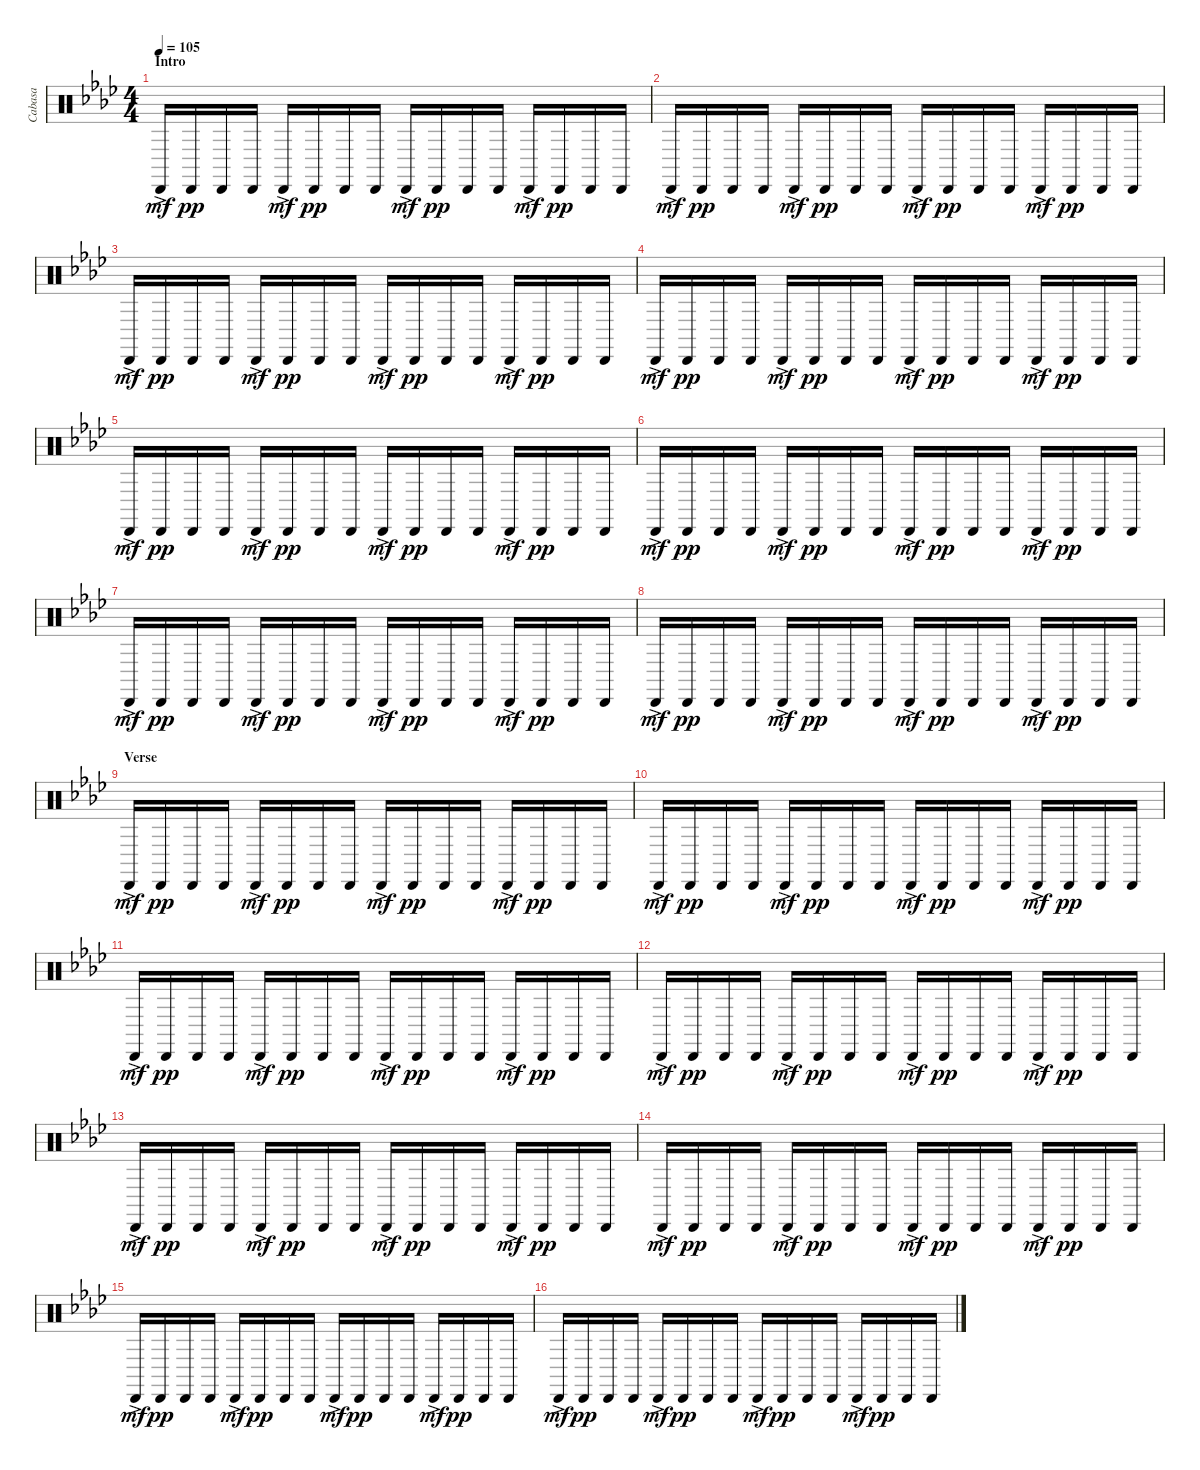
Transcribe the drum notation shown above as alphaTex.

\track ("Cabasa" "Cabasa") {instrument percussion}
\staff {score}
\articulation defaults
\ts (4 4)
\section ("" "Intro")
\tempo 105
\clef neutral
\ks ab "Cabasa (hit)"{ac}.16{dy mf} "Cabasa (hit)".16{dy pp} "Cabasa (hit)".16 "Cabasa (hit)".16 "Cabasa (hit)"{ac}.16{dy mf} "Cabasa (hit)".16{dy pp} "Cabasa (hit)".16 "Cabasa (hit)".16 "Cabasa (hit)"{ac}.16{dy mf} "Cabasa (hit)".16{dy pp} "Cabasa (hit)".16 "Cabasa (hit)".16 "Cabasa (hit)"{ac}.16{dy mf} "Cabasa (hit)".16{dy pp} "Cabasa (hit)".16 "Cabasa (hit)".16
|
"Cabasa (hit)"{ac}.16{dy mf} "Cabasa (hit)".16{dy pp} "Cabasa (hit)".16 "Cabasa (hit)".16 "Cabasa (hit)"{ac}.16{dy mf} "Cabasa (hit)".16{dy pp} "Cabasa (hit)".16 "Cabasa (hit)".16 "Cabasa (hit)"{ac}.16{dy mf} "Cabasa (hit)".16{dy pp} "Cabasa (hit)".16 "Cabasa (hit)".16 "Cabasa (hit)"{ac}.16{dy mf} "Cabasa (hit)".16{dy pp} "Cabasa (hit)".16 "Cabasa (hit)".16 |
"Cabasa (hit)"{ac}.16{dy mf} "Cabasa (hit)".16{dy pp} "Cabasa (hit)".16 "Cabasa (hit)".16 "Cabasa (hit)"{ac}.16{dy mf} "Cabasa (hit)".16{dy pp} "Cabasa (hit)".16 "Cabasa (hit)".16 "Cabasa (hit)"{ac}.16{dy mf} "Cabasa (hit)".16{dy pp} "Cabasa (hit)".16 "Cabasa (hit)".16 "Cabasa (hit)"{ac}.16{dy mf} "Cabasa (hit)".16{dy pp} "Cabasa (hit)".16 "Cabasa (hit)".16 |
"Cabasa (hit)"{ac}.16{dy mf} "Cabasa (hit)".16{dy pp} "Cabasa (hit)".16 "Cabasa (hit)".16 "Cabasa (hit)"{ac}.16{dy mf} "Cabasa (hit)".16{dy pp} "Cabasa (hit)".16 "Cabasa (hit)".16 "Cabasa (hit)"{ac}.16{dy mf} "Cabasa (hit)".16{dy pp} "Cabasa (hit)".16 "Cabasa (hit)".16 "Cabasa (hit)"{ac}.16{dy mf} "Cabasa (hit)".16{dy pp} "Cabasa (hit)".16 "Cabasa (hit)".16 |
"Cabasa (hit)"{ac}.16{dy mf} "Cabasa (hit)".16{dy pp} "Cabasa (hit)".16 "Cabasa (hit)".16 "Cabasa (hit)"{ac}.16{dy mf} "Cabasa (hit)".16{dy pp} "Cabasa (hit)".16 "Cabasa (hit)".16 "Cabasa (hit)"{ac}.16{dy mf} "Cabasa (hit)".16{dy pp} "Cabasa (hit)".16 "Cabasa (hit)".16 "Cabasa (hit)"{ac}.16{dy mf} "Cabasa (hit)".16{dy pp} "Cabasa (hit)".16 "Cabasa (hit)".16 |
"Cabasa (hit)"{ac}.16{dy mf} "Cabasa (hit)".16{dy pp} "Cabasa (hit)".16 "Cabasa (hit)".16 "Cabasa (hit)"{ac}.16{dy mf} "Cabasa (hit)".16{dy pp} "Cabasa (hit)".16 "Cabasa (hit)".16 "Cabasa (hit)"{ac}.16{dy mf} "Cabasa (hit)".16{dy pp} "Cabasa (hit)".16 "Cabasa (hit)".16 "Cabasa (hit)"{ac}.16{dy mf} "Cabasa (hit)".16{dy pp} "Cabasa (hit)".16 "Cabasa (hit)".16 |
"Cabasa (hit)"{ac}.16{dy mf} "Cabasa (hit)".16{dy pp} "Cabasa (hit)".16 "Cabasa (hit)".16 "Cabasa (hit)"{ac}.16{dy mf} "Cabasa (hit)".16{dy pp} "Cabasa (hit)".16 "Cabasa (hit)".16 "Cabasa (hit)"{ac}.16{dy mf} "Cabasa (hit)".16{dy pp} "Cabasa (hit)".16 "Cabasa (hit)".16 "Cabasa (hit)"{ac}.16{dy mf} "Cabasa (hit)".16{dy pp} "Cabasa (hit)".16 "Cabasa (hit)".16 |
"Cabasa (hit)"{ac}.16{dy mf} "Cabasa (hit)".16{dy pp} "Cabasa (hit)".16 "Cabasa (hit)".16 "Cabasa (hit)"{ac}.16{dy mf} "Cabasa (hit)".16{dy pp} "Cabasa (hit)".16 "Cabasa (hit)".16 "Cabasa (hit)"{ac}.16{dy mf} "Cabasa (hit)".16{dy pp} "Cabasa (hit)".16 "Cabasa (hit)".16 "Cabasa (hit)"{ac}.16{dy mf} "Cabasa (hit)".16{dy pp} "Cabasa (hit)".16 "Cabasa (hit)".16 |
\section ("" "Verse")
"Cabasa (hit)"{ac}.16{dy mf} "Cabasa (hit)".16{dy pp} "Cabasa (hit)".16 "Cabasa (hit)".16 "Cabasa (hit)"{ac}.16{dy mf} "Cabasa (hit)".16{dy pp} "Cabasa (hit)".16 "Cabasa (hit)".16 "Cabasa (hit)"{ac}.16{dy mf} "Cabasa (hit)".16{dy pp} "Cabasa (hit)".16 "Cabasa (hit)".16 "Cabasa (hit)"{ac}.16{dy mf} "Cabasa (hit)".16{dy pp} "Cabasa (hit)".16 "Cabasa (hit)".16 |
"Cabasa (hit)"{ac}.16{dy mf} "Cabasa (hit)".16{dy pp} "Cabasa (hit)".16 "Cabasa (hit)".16 "Cabasa (hit)"{ac}.16{dy mf} "Cabasa (hit)".16{dy pp} "Cabasa (hit)".16 "Cabasa (hit)".16 "Cabasa (hit)"{ac}.16{dy mf} "Cabasa (hit)".16{dy pp} "Cabasa (hit)".16 "Cabasa (hit)".16 "Cabasa (hit)"{ac}.16{dy mf} "Cabasa (hit)".16{dy pp} "Cabasa (hit)".16 "Cabasa (hit)".16 |
"Cabasa (hit)"{ac}.16{dy mf} "Cabasa (hit)".16{dy pp} "Cabasa (hit)".16 "Cabasa (hit)".16 "Cabasa (hit)"{ac}.16{dy mf} "Cabasa (hit)".16{dy pp} "Cabasa (hit)".16 "Cabasa (hit)".16 "Cabasa (hit)"{ac}.16{dy mf} "Cabasa (hit)".16{dy pp} "Cabasa (hit)".16 "Cabasa (hit)".16 "Cabasa (hit)"{ac}.16{dy mf} "Cabasa (hit)".16{dy pp} "Cabasa (hit)".16 "Cabasa (hit)".16 |
"Cabasa (hit)"{ac}.16{dy mf} "Cabasa (hit)".16{dy pp} "Cabasa (hit)".16 "Cabasa (hit)".16 "Cabasa (hit)"{ac}.16{dy mf} "Cabasa (hit)".16{dy pp} "Cabasa (hit)".16 "Cabasa (hit)".16 "Cabasa (hit)"{ac}.16{dy mf} "Cabasa (hit)".16{dy pp} "Cabasa (hit)".16 "Cabasa (hit)".16 "Cabasa (hit)"{ac}.16{dy mf} "Cabasa (hit)".16{dy pp} "Cabasa (hit)".16 "Cabasa (hit)".16 |
"Cabasa (hit)"{ac}.16{dy mf} "Cabasa (hit)".16{dy pp} "Cabasa (hit)".16 "Cabasa (hit)".16 "Cabasa (hit)"{ac}.16{dy mf} "Cabasa (hit)".16{dy pp} "Cabasa (hit)".16 "Cabasa (hit)".16 "Cabasa (hit)"{ac}.16{dy mf} "Cabasa (hit)".16{dy pp} "Cabasa (hit)".16 "Cabasa (hit)".16 "Cabasa (hit)"{ac}.16{dy mf} "Cabasa (hit)".16{dy pp} "Cabasa (hit)".16 "Cabasa (hit)".16 |
"Cabasa (hit)"{ac}.16{dy mf} "Cabasa (hit)".16{dy pp} "Cabasa (hit)".16 "Cabasa (hit)".16 "Cabasa (hit)"{ac}.16{dy mf} "Cabasa (hit)".16{dy pp} "Cabasa (hit)".16 "Cabasa (hit)".16 "Cabasa (hit)"{ac}.16{dy mf} "Cabasa (hit)".16{dy pp} "Cabasa (hit)".16 "Cabasa (hit)".16 "Cabasa (hit)"{ac}.16{dy mf} "Cabasa (hit)".16{dy pp} "Cabasa (hit)".16 "Cabasa (hit)".16 |
"Cabasa (hit)"{ac}.16{dy mf} "Cabasa (hit)".16{dy pp} "Cabasa (hit)".16 "Cabasa (hit)".16 "Cabasa (hit)"{ac}.16{dy mf} "Cabasa (hit)".16{dy pp} "Cabasa (hit)".16 "Cabasa (hit)".16 "Cabasa (hit)"{ac}.16{dy mf} "Cabasa (hit)".16{dy pp} "Cabasa (hit)".16 "Cabasa (hit)".16 "Cabasa (hit)"{ac}.16{dy mf} "Cabasa (hit)".16{dy pp} "Cabasa (hit)".16 "Cabasa (hit)".16 |
"Cabasa (hit)"{ac}.16{dy mf} "Cabasa (hit)".16{dy pp} "Cabasa (hit)".16 "Cabasa (hit)".16 "Cabasa (hit)"{ac}.16{dy mf} "Cabasa (hit)".16{dy pp} "Cabasa (hit)".16 "Cabasa (hit)".16 "Cabasa (hit)"{ac}.16{dy mf} "Cabasa (hit)".16{dy pp} "Cabasa (hit)".16 "Cabasa (hit)".16 "Cabasa (hit)"{ac}.16{dy mf} "Cabasa (hit)".16{dy pp} "Cabasa (hit)".16 "Cabasa (hit)".16
